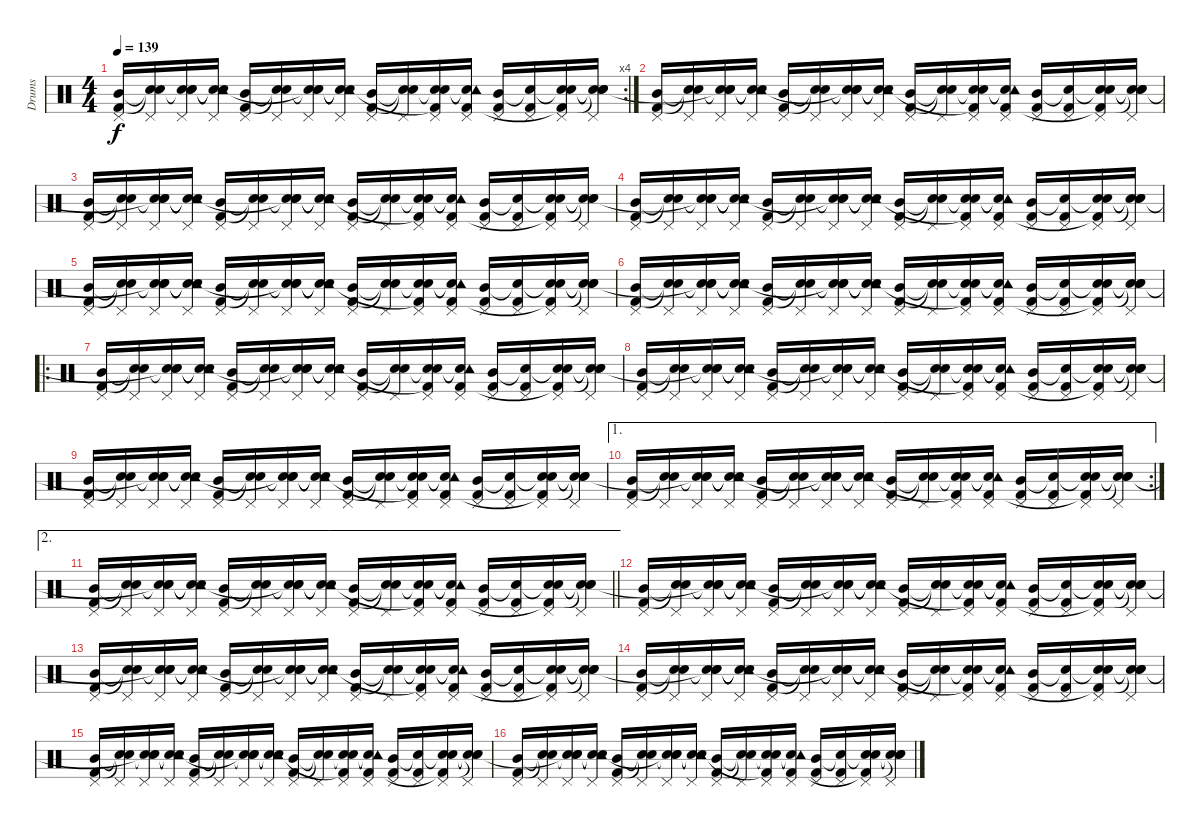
\track ("Drums" "Drums") {instrument percussion}
\staff {score}
\articulation defaults
\rc 4
\ts (4 4)
\tempo 139
\clef neutral
\ks c
("Mid Tom (hit)" "Pedal Hi-Hat (hit)" "Kick (hit) 2").16{dy f} ("Snare (hit)"{t} "Pedal Hi-Hat (hit)" "Snare (hit)"{t}).16 ("Snare (hit)"{t} "Snare (hit) 2" "Pedal Hi-Hat (hit)" "Snare (hit)").16 ("Snare (hit)"{t} "Tambourine (hit)"{t} "Pedal Hi-Hat (hit)" "Snare (hit)"{t}).16 ("Mid Tom (hit)" "Pedal Hi-Hat (hit)" "Kick (hit) 2").16 ("Snare (hit)"{t} "Pedal Hi-Hat (hit)" "Snare (hit)"{t}).16 ("Snare (hit)"{t} "Snare (hit) 2" "Pedal Hi-Hat (hit)" "Snare (hit)"{t}).16 ("Snare (hit)"{t} "Tambourine (hit)"{t} "Pedal Hi-Hat (hit)" "Snare (hit)"{t}).16 ("Mid Tom (hit)" "Pedal Hi-Hat (hit)" "Kick (hit) 2").16 ("Snare (hit)"{t} "Pedal Hi-Hat (hit)" "Snare (hit)"{t}).16 ("Snare (hit)"{t} "Snare (hit) 2" "Pedal Hi-Hat (hit)" "Kick (hit) 2"{t}).16 ("Snare (hit)"{t} "Tambourine (hit)"{t} "Pedal Hi-Hat (hit)" "Kick (hit) 2").16 ("Mid Tom (hit)" "Pedal Hi-Hat (hit)" "Kick (hit) 2").16 ("Snare (hit)"{t} "Pedal Hi-Hat (hit)" "Kick (hit) 2").16 ("Snare (hit)"{t} "Snare (hit) 2" "Pedal Hi-Hat (hit)" "Kick (hit) 2"{t}).16 ("Snare (hit)"{t} "Snare (hit)"{t} "Pedal Hi-Hat (hit)" "Snare (hit)"{t}).16 |
("Mid Tom (hit)" "Pedal Hi-Hat (hit)" "Kick (hit) 2").16 ("Snare (hit)"{t} "Pedal Hi-Hat (hit)" "Snare (hit)"{t}).16 ("Snare (hit)"{t} "Snare (hit) 2" "Pedal Hi-Hat (hit)" "Snare (hit)"{t}).16 ("Snare (hit)"{t} "Tambourine (hit)"{t} "Pedal Hi-Hat (hit)" "Snare (hit)"{t}).16 ("Mid Tom (hit)" "Pedal Hi-Hat (hit)" "Kick (hit) 2").16 ("Snare (hit)"{t} "Pedal Hi-Hat (hit)" "Snare (hit)"{t}).16 ("Snare (hit)"{t} "Snare (hit) 2" "Pedal Hi-Hat (hit)" "Snare (hit)"{t}).16 ("Snare (hit)"{t} "Tambourine (hit)"{t} "Pedal Hi-Hat (hit)" "Snare (hit)"{t}).16 ("Mid Tom (hit)" "Pedal Hi-Hat (hit)" "Kick (hit) 2").16 ("Snare (hit)"{t} "Pedal Hi-Hat (hit)" "Snare (hit)"{t}).16 ("Snare (hit)"{t} "Snare (hit) 2" "Pedal Hi-Hat (hit)" "Kick (hit) 2"{t}).16 ("Snare (hit)"{t} "Tambourine (hit)"{t} "Pedal Hi-Hat (hit)" "Kick (hit) 2").16 ("Mid Tom (hit)" "Pedal Hi-Hat (hit)" "Kick (hit) 2").16 ("Snare (hit)"{t} "Pedal Hi-Hat (hit)" "Kick (hit) 2").16 ("Snare (hit)"{t} "Snare (hit) 2" "Pedal Hi-Hat (hit)" "Kick (hit) 2"{t}).16 ("Snare (hit)"{t} "Snare (hit)"{t} "Pedal Hi-Hat (hit)" "Snare (hit)"{t}).16 |
("Mid Tom (hit)" "Pedal Hi-Hat (hit)" "Kick (hit) 2").16 ("Snare (hit)"{t} "Pedal Hi-Hat (hit)" "Snare (hit)"{t}).16 ("Snare (hit)"{t} "Snare (hit) 2" "Pedal Hi-Hat (hit)" "Snare (hit)"{t}).16 ("Snare (hit)"{t} "Tambourine (hit)"{t} "Pedal Hi-Hat (hit)" "Snare (hit)"{t}).16 ("Mid Tom (hit)" "Pedal Hi-Hat (hit)" "Kick (hit) 2").16 ("Snare (hit)"{t} "Pedal Hi-Hat (hit)" "Snare (hit)"{t}).16 ("Snare (hit)"{t} "Snare (hit) 2" "Pedal Hi-Hat (hit)" "Snare (hit)"{t}).16 ("Snare (hit)"{t} "Tambourine (hit)"{t} "Pedal Hi-Hat (hit)" "Snare (hit)"{t}).16 ("Mid Tom (hit)" "Pedal Hi-Hat (hit)" "Kick (hit) 2").16 ("Snare (hit)"{t} "Pedal Hi-Hat (hit)" "Snare (hit)"{t}).16 ("Snare (hit)"{t} "Snare (hit) 2" "Pedal Hi-Hat (hit)" "Kick (hit) 2"{t}).16 ("Snare (hit)"{t} "Tambourine (hit)"{t} "Pedal Hi-Hat (hit)" "Kick (hit) 2").16 ("Mid Tom (hit)" "Pedal Hi-Hat (hit)" "Kick (hit) 2").16 ("Snare (hit)"{t} "Pedal Hi-Hat (hit)" "Kick (hit) 2").16 ("Snare (hit)"{t} "Snare (hit) 2" "Pedal Hi-Hat (hit)" "Kick (hit) 2"{t}).16 ("Snare (hit)"{t} "Snare (hit)"{t} "Pedal Hi-Hat (hit)" "Snare (hit)"{t}).16 |
("Mid Tom (hit)" "Pedal Hi-Hat (hit)" "Kick (hit) 2").16 ("Snare (hit)"{t} "Pedal Hi-Hat (hit)" "Snare (hit)"{t}).16 ("Snare (hit)"{t} "Snare (hit) 2" "Pedal Hi-Hat (hit)" "Snare (hit)"{t}).16 ("Snare (hit)"{t} "Tambourine (hit)"{t} "Pedal Hi-Hat (hit)" "Snare (hit)"{t}).16 ("Mid Tom (hit)" "Pedal Hi-Hat (hit)" "Kick (hit) 2").16 ("Snare (hit)"{t} "Pedal Hi-Hat (hit)" "Snare (hit)"{t}).16 ("Snare (hit)"{t} "Snare (hit) 2" "Pedal Hi-Hat (hit)" "Snare (hit)"{t}).16 ("Snare (hit)"{t} "Tambourine (hit)"{t} "Pedal Hi-Hat (hit)" "Snare (hit)"{t}).16 ("Mid Tom (hit)" "Pedal Hi-Hat (hit)" "Kick (hit) 2").16 ("Snare (hit)"{t} "Pedal Hi-Hat (hit)" "Snare (hit)"{t}).16 ("Snare (hit)"{t} "Snare (hit) 2" "Pedal Hi-Hat (hit)" "Kick (hit) 2"{t}).16 ("Snare (hit)"{t} "Tambourine (hit)"{t} "Pedal Hi-Hat (hit)" "Kick (hit) 2").16 ("Mid Tom (hit)" "Pedal Hi-Hat (hit)" "Kick (hit) 2").16 ("Snare (hit)"{t} "Pedal Hi-Hat (hit)" "Kick (hit) 2").16 ("Snare (hit)"{t} "Snare (hit) 2" "Pedal Hi-Hat (hit)" "Kick (hit) 2"{t}).16 ("Snare (hit)"{t} "Snare (hit)"{t} "Pedal Hi-Hat (hit)" "Snare (hit)"{t}).16 |
("Mid Tom (hit)" "Pedal Hi-Hat (hit)" "Kick (hit) 2").16 ("Snare (hit)"{t} "Pedal Hi-Hat (hit)" "Snare (hit)"{t}).16 ("Snare (hit)"{t} "Snare (hit) 2" "Pedal Hi-Hat (hit)" "Snare (hit)"{t}).16 ("Snare (hit)"{t} "Tambourine (hit)"{t} "Pedal Hi-Hat (hit)" "Snare (hit)"{t}).16 ("Mid Tom (hit)" "Pedal Hi-Hat (hit)" "Kick (hit) 2").16 ("Snare (hit)"{t} "Pedal Hi-Hat (hit)" "Snare (hit)"{t}).16 ("Snare (hit)"{t} "Snare (hit) 2" "Pedal Hi-Hat (hit)" "Snare (hit)"{t}).16 ("Snare (hit)"{t} "Tambourine (hit)"{t} "Pedal Hi-Hat (hit)" "Snare (hit)"{t}).16 ("Mid Tom (hit)" "Pedal Hi-Hat (hit)" "Kick (hit) 2").16 ("Snare (hit)"{t} "Pedal Hi-Hat (hit)" "Snare (hit)"{t}).16 ("Snare (hit)"{t} "Snare (hit) 2" "Pedal Hi-Hat (hit)" "Kick (hit) 2"{t}).16 ("Snare (hit)"{t} "Tambourine (hit)"{t} "Pedal Hi-Hat (hit)" "Kick (hit) 2").16 ("Mid Tom (hit)" "Pedal Hi-Hat (hit)" "Kick (hit) 2").16 ("Snare (hit)"{t} "Pedal Hi-Hat (hit)" "Kick (hit) 2").16 ("Snare (hit)"{t} "Snare (hit) 2" "Pedal Hi-Hat (hit)" "Kick (hit) 2"{t}).16 ("Snare (hit)"{t} "Snare (hit)"{t} "Pedal Hi-Hat (hit)" "Snare (hit)"{t}).16 |
("Mid Tom (hit)" "Pedal Hi-Hat (hit)" "Kick (hit) 2").16 ("Snare (hit)"{t} "Pedal Hi-Hat (hit)" "Snare (hit)"{t}).16 ("Snare (hit)"{t} "Snare (hit) 2" "Pedal Hi-Hat (hit)" "Snare (hit)"{t}).16 ("Snare (hit)"{t} "Tambourine (hit)"{t} "Pedal Hi-Hat (hit)" "Snare (hit)"{t}).16 ("Mid Tom (hit)" "Pedal Hi-Hat (hit)" "Kick (hit) 2").16 ("Snare (hit)"{t} "Pedal Hi-Hat (hit)" "Snare (hit)"{t}).16 ("Snare (hit)"{t} "Snare (hit) 2" "Pedal Hi-Hat (hit)" "Snare (hit)"{t}).16 ("Snare (hit)"{t} "Tambourine (hit)"{t} "Pedal Hi-Hat (hit)" "Snare (hit)"{t}).16 ("Mid Tom (hit)" "Pedal Hi-Hat (hit)" "Kick (hit) 2").16 ("Snare (hit)"{t} "Pedal Hi-Hat (hit)" "Snare (hit)"{t}).16 ("Snare (hit)"{t} "Snare (hit) 2" "Pedal Hi-Hat (hit)" "Kick (hit) 2"{t}).16 ("Snare (hit)"{t} "Tambourine (hit)"{t} "Pedal Hi-Hat (hit)" "Kick (hit) 2").16 ("Mid Tom (hit)" "Pedal Hi-Hat (hit)" "Kick (hit) 2").16 ("Snare (hit)"{t} "Pedal Hi-Hat (hit)" "Kick (hit) 2").16 ("Snare (hit)"{t} "Snare (hit) 2" "Pedal Hi-Hat (hit)" "Kick (hit) 2"{t}).16 ("Snare (hit)"{t} "Snare (hit)"{t} "Pedal Hi-Hat (hit)" "Snare (hit)"{t}).16 |
\ro
("Mid Tom (hit)" "Pedal Hi-Hat (hit)" "Kick (hit) 2").16 ("Snare (hit)"{t} "Pedal Hi-Hat (hit)" "Snare (hit)"{t}).16 ("Snare (hit)"{t} "Snare (hit) 2" "Pedal Hi-Hat (hit)" "Snare (hit)"{t}).16 ("Snare (hit)"{t} "Tambourine (hit)"{t} "Pedal Hi-Hat (hit)" "Snare (hit)"{t}).16 ("Mid Tom (hit)" "Pedal Hi-Hat (hit)" "Kick (hit) 2").16 ("Snare (hit)"{t} "Pedal Hi-Hat (hit)" "Snare (hit)"{t}).16 ("Snare (hit)"{t} "Snare (hit) 2" "Pedal Hi-Hat (hit)" "Snare (hit)"{t}).16 ("Snare (hit)"{t} "Tambourine (hit)"{t} "Pedal Hi-Hat (hit)" "Snare (hit)"{t}).16 ("Mid Tom (hit)" "Pedal Hi-Hat (hit)" "Kick (hit) 2").16 ("Snare (hit)"{t} "Pedal Hi-Hat (hit)" "Snare (hit)"{t}).16 ("Snare (hit)"{t} "Snare (hit) 2" "Pedal Hi-Hat (hit)" "Kick (hit) 2"{t}).16 ("Snare (hit)"{t} "Tambourine (hit)"{t} "Pedal Hi-Hat (hit)" "Kick (hit) 2").16 ("Mid Tom (hit)" "Pedal Hi-Hat (hit)" "Kick (hit) 2").16 ("Snare (hit)"{t} "Pedal Hi-Hat (hit)" "Kick (hit) 2").16 ("Snare (hit)"{t} "Snare (hit) 2" "Pedal Hi-Hat (hit)" "Kick (hit) 2"{t}).16 ("Snare (hit)"{t} "Snare (hit)"{t} "Pedal Hi-Hat (hit)" "Snare (hit)"{t}).16 |
("Mid Tom (hit)" "Pedal Hi-Hat (hit)" "Kick (hit) 2").16 ("Snare (hit)"{t} "Pedal Hi-Hat (hit)" "Snare (hit)"{t}).16 ("Snare (hit)"{t} "Snare (hit) 2" "Pedal Hi-Hat (hit)" "Snare (hit)"{t}).16 ("Snare (hit)"{t} "Tambourine (hit)"{t} "Pedal Hi-Hat (hit)" "Snare (hit)"{t}).16 ("Mid Tom (hit)" "Pedal Hi-Hat (hit)" "Kick (hit) 2").16 ("Snare (hit)"{t} "Pedal Hi-Hat (hit)" "Snare (hit)"{t}).16 ("Snare (hit)"{t} "Snare (hit) 2" "Pedal Hi-Hat (hit)" "Snare (hit)"{t}).16 ("Snare (hit)"{t} "Tambourine (hit)"{t} "Pedal Hi-Hat (hit)" "Snare (hit)"{t}).16 ("Mid Tom (hit)" "Pedal Hi-Hat (hit)" "Kick (hit) 2").16 ("Snare (hit)"{t} "Pedal Hi-Hat (hit)" "Snare (hit)"{t}).16 ("Snare (hit)"{t} "Snare (hit) 2" "Pedal Hi-Hat (hit)" "Kick (hit) 2"{t}).16 ("Snare (hit)"{t} "Tambourine (hit)"{t} "Pedal Hi-Hat (hit)" "Kick (hit) 2").16 ("Mid Tom (hit)" "Pedal Hi-Hat (hit)" "Kick (hit) 2").16 ("Snare (hit)"{t} "Pedal Hi-Hat (hit)" "Kick (hit) 2").16 ("Snare (hit)"{t} "Snare (hit) 2" "Pedal Hi-Hat (hit)" "Kick (hit) 2"{t}).16 ("Snare (hit)"{t} "Snare (hit)"{t} "Pedal Hi-Hat (hit)" "Snare (hit)"{t}).16 |
("Mid Tom (hit)" "Pedal Hi-Hat (hit)" "Kick (hit) 2").16 ("Snare (hit)"{t} "Pedal Hi-Hat (hit)" "Snare (hit)"{t}).16 ("Snare (hit)"{t} "Snare (hit) 2" "Pedal Hi-Hat (hit)" "Snare (hit)"{t}).16 ("Snare (hit)"{t} "Tambourine (hit)"{t} "Pedal Hi-Hat (hit)" "Snare (hit)"{t}).16 ("Mid Tom (hit)" "Pedal Hi-Hat (hit)" "Kick (hit) 2").16 ("Snare (hit)"{t} "Pedal Hi-Hat (hit)" "Snare (hit)"{t}).16 ("Snare (hit)"{t} "Snare (hit) 2" "Pedal Hi-Hat (hit)" "Snare (hit)"{t}).16 ("Snare (hit)"{t} "Tambourine (hit)"{t} "Pedal Hi-Hat (hit)" "Snare (hit)"{t}).16 ("Mid Tom (hit)" "Pedal Hi-Hat (hit)" "Kick (hit) 2").16 ("Snare (hit)"{t} "Pedal Hi-Hat (hit)" "Snare (hit)"{t}).16 ("Snare (hit)"{t} "Snare (hit) 2" "Pedal Hi-Hat (hit)" "Kick (hit) 2"{t}).16 ("Snare (hit)"{t} "Tambourine (hit)"{t} "Pedal Hi-Hat (hit)" "Kick (hit) 2").16 ("Mid Tom (hit)" "Pedal Hi-Hat (hit)" "Kick (hit) 2").16 ("Snare (hit)"{t} "Pedal Hi-Hat (hit)" "Kick (hit) 2").16 ("Snare (hit)"{t} "Snare (hit) 2" "Pedal Hi-Hat (hit)" "Kick (hit) 2"{t}).16 ("Snare (hit)"{t} "Snare (hit)"{t} "Pedal Hi-Hat (hit)" "Snare (hit)"{t}).16 |
\ae 1
\rc 2
("Mid Tom (hit)" "Pedal Hi-Hat (hit)" "Kick (hit) 2").16 ("Snare (hit)"{t} "Pedal Hi-Hat (hit)" "Snare (hit)"{t}).16 ("Snare (hit)"{t} "Snare (hit) 2" "Pedal Hi-Hat (hit)" "Snare (hit)"{t}).16 ("Snare (hit)"{t} "Tambourine (hit)"{t} "Pedal Hi-Hat (hit)" "Snare (hit)"{t}).16 ("Mid Tom (hit)" "Pedal Hi-Hat (hit)" "Kick (hit) 2").16 ("Snare (hit)"{t} "Pedal Hi-Hat (hit)" "Snare (hit)"{t}).16 ("Snare (hit)"{t} "Snare (hit) 2" "Pedal Hi-Hat (hit)" "Snare (hit)"{t}).16 ("Snare (hit)"{t} "Tambourine (hit)"{t} "Pedal Hi-Hat (hit)" "Snare (hit)"{t}).16 ("Mid Tom (hit)" "Pedal Hi-Hat (hit)" "Kick (hit) 2").16 ("Snare (hit)"{t} "Pedal Hi-Hat (hit)" "Snare (hit)"{t}).16 ("Snare (hit)"{t} "Snare (hit) 2" "Pedal Hi-Hat (hit)" "Kick (hit) 2"{t}).16 ("Snare (hit)"{t} "Tambourine (hit)"{t} "Pedal Hi-Hat (hit)" "Kick (hit) 2").16 ("Mid Tom (hit)" "Pedal Hi-Hat (hit)" "Kick (hit) 2").16 ("Snare (hit)"{t} "Pedal Hi-Hat (hit)" "Kick (hit) 2").16 ("Snare (hit)"{t} "Snare (hit) 2" "Pedal Hi-Hat (hit)" "Kick (hit) 2"{t}).16 ("Snare (hit)"{t} "Snare (hit)"{t} "Pedal Hi-Hat (hit)" "Snare (hit)"{t}).16 |
\ae 2
\barLineRight lightlight
("Mid Tom (hit)" "Pedal Hi-Hat (hit)" "Kick (hit) 2").16 ("Snare (hit)"{t} "Pedal Hi-Hat (hit)" "Snare (hit)"{t}).16 ("Snare (hit)"{t} "Snare (hit) 2" "Pedal Hi-Hat (hit)" "Snare (hit)"{t}).16 ("Snare (hit)"{t} "Tambourine (hit)"{t} "Pedal Hi-Hat (hit)" "Snare (hit)"{t}).16 ("Mid Tom (hit)" "Pedal Hi-Hat (hit)" "Kick (hit) 2").16 ("Snare (hit)"{t} "Pedal Hi-Hat (hit)" "Snare (hit)"{t}).16 ("Snare (hit)"{t} "Snare (hit) 2" "Pedal Hi-Hat (hit)" "Snare (hit)"{t}).16 ("Snare (hit)"{t} "Tambourine (hit)"{t} "Pedal Hi-Hat (hit)" "Snare (hit)"{t}).16 ("Mid Tom (hit)" "Pedal Hi-Hat (hit)" "Kick (hit) 2").16 ("Snare (hit)"{t} "Pedal Hi-Hat (hit)" "Snare (hit)"{t}).16 ("Snare (hit)"{t} "Snare (hit) 2" "Pedal Hi-Hat (hit)" "Kick (hit) 2"{t}).16 ("Snare (hit)"{t} "Tambourine (hit)"{t} "Pedal Hi-Hat (hit)" "Kick (hit) 2").16 ("Mid Tom (hit)" "Pedal Hi-Hat (hit)" "Kick (hit) 2").16 ("Snare (hit)"{t} "Pedal Hi-Hat (hit)" "Kick (hit) 2").16 ("Snare (hit)"{t} "Snare (hit) 2" "Pedal Hi-Hat (hit)" "Kick (hit) 2"{t}).16 ("Snare (hit)"{t} "Snare (hit)"{t} "Pedal Hi-Hat (hit)" "Snare (hit)"{t}).16 |
("Mid Tom (hit)" "Pedal Hi-Hat (hit)" "Kick (hit) 2").16 ("Snare (hit)"{t} "Pedal Hi-Hat (hit)" "Snare (hit)"{t}).16 ("Snare (hit)"{t} "Snare (hit) 2" "Pedal Hi-Hat (hit)" "Snare (hit)"{t}).16 ("Snare (hit)"{t} "Tambourine (hit)"{t} "Pedal Hi-Hat (hit)" "Snare (hit)"{t}).16 ("Mid Tom (hit)" "Pedal Hi-Hat (hit)" "Kick (hit) 2").16 ("Snare (hit)"{t} "Pedal Hi-Hat (hit)" "Snare (hit)"{t}).16 ("Snare (hit)"{t} "Snare (hit) 2" "Pedal Hi-Hat (hit)" "Snare (hit)"{t}).16 ("Snare (hit)"{t} "Tambourine (hit)"{t} "Pedal Hi-Hat (hit)" "Snare (hit)"{t}).16 ("Mid Tom (hit)" "Pedal Hi-Hat (hit)" "Kick (hit) 2").16 ("Snare (hit)"{t} "Pedal Hi-Hat (hit)" "Snare (hit)"{t}).16 ("Snare (hit)"{t} "Snare (hit) 2" "Pedal Hi-Hat (hit)" "Kick (hit) 2"{t}).16 ("Snare (hit)"{t} "Tambourine (hit)"{t} "Pedal Hi-Hat (hit)" "Kick (hit) 2").16 ("Mid Tom (hit)" "Pedal Hi-Hat (hit)" "Kick (hit) 2").16 ("Snare (hit)"{t} "Pedal Hi-Hat (hit)" "Kick (hit) 2").16 ("Snare (hit)"{t} "Snare (hit) 2" "Pedal Hi-Hat (hit)" "Kick (hit) 2"{t}).16 ("Snare (hit)"{t} "Snare (hit)"{t} "Pedal Hi-Hat (hit)" "Snare (hit)"{t}).16 |
("Mid Tom (hit)" "Pedal Hi-Hat (hit)" "Kick (hit) 2").16 ("Snare (hit)"{t} "Pedal Hi-Hat (hit)" "Snare (hit)"{t}).16 ("Snare (hit)"{t} "Snare (hit) 2" "Pedal Hi-Hat (hit)" "Snare (hit)"{t}).16 ("Snare (hit)"{t} "Tambourine (hit)"{t} "Pedal Hi-Hat (hit)" "Snare (hit)"{t}).16 ("Mid Tom (hit)" "Pedal Hi-Hat (hit)" "Kick (hit) 2").16 ("Snare (hit)"{t} "Pedal Hi-Hat (hit)" "Snare (hit)"{t}).16 ("Snare (hit)"{t} "Snare (hit) 2" "Pedal Hi-Hat (hit)" "Snare (hit)"{t}).16 ("Snare (hit)"{t} "Tambourine (hit)"{t} "Pedal Hi-Hat (hit)" "Snare (hit)"{t}).16 ("Mid Tom (hit)" "Pedal Hi-Hat (hit)" "Kick (hit) 2").16 ("Snare (hit)"{t} "Pedal Hi-Hat (hit)" "Snare (hit)"{t}).16 ("Snare (hit)"{t} "Snare (hit) 2" "Pedal Hi-Hat (hit)" "Kick (hit) 2"{t}).16 ("Snare (hit)"{t} "Tambourine (hit)"{t} "Pedal Hi-Hat (hit)" "Kick (hit) 2").16 ("Mid Tom (hit)" "Pedal Hi-Hat (hit)" "Kick (hit) 2").16 ("Snare (hit)"{t} "Pedal Hi-Hat (hit)" "Kick (hit) 2").16 ("Snare (hit)"{t} "Snare (hit) 2" "Pedal Hi-Hat (hit)" "Kick (hit) 2"{t}).16 ("Snare (hit)"{t} "Snare (hit)"{t} "Pedal Hi-Hat (hit)" "Snare (hit)"{t}).16 |
("Mid Tom (hit)" "Pedal Hi-Hat (hit)" "Kick (hit) 2").16 ("Snare (hit)"{t} "Pedal Hi-Hat (hit)" "Snare (hit)"{t}).16 ("Snare (hit)"{t} "Snare (hit) 2" "Pedal Hi-Hat (hit)" "Snare (hit)"{t}).16 ("Snare (hit)"{t} "Tambourine (hit)"{t} "Pedal Hi-Hat (hit)" "Snare (hit)"{t}).16 ("Mid Tom (hit)" "Pedal Hi-Hat (hit)" "Kick (hit) 2").16 ("Snare (hit)"{t} "Pedal Hi-Hat (hit)" "Snare (hit)"{t}).16 ("Snare (hit)"{t} "Snare (hit) 2" "Pedal Hi-Hat (hit)" "Snare (hit)"{t}).16 ("Snare (hit)"{t} "Tambourine (hit)"{t} "Pedal Hi-Hat (hit)" "Snare (hit)"{t}).16 ("Mid Tom (hit)" "Pedal Hi-Hat (hit)" "Kick (hit) 2").16 ("Snare (hit)"{t} "Pedal Hi-Hat (hit)" "Snare (hit)"{t}).16 ("Snare (hit)"{t} "Snare (hit) 2" "Pedal Hi-Hat (hit)" "Kick (hit) 2"{t}).16 ("Snare (hit)"{t} "Tambourine (hit)"{t} "Pedal Hi-Hat (hit)" "Kick (hit) 2").16 ("Mid Tom (hit)" "Pedal Hi-Hat (hit)" "Kick (hit) 2").16 ("Snare (hit)"{t} "Pedal Hi-Hat (hit)" "Kick (hit) 2").16 ("Snare (hit)"{t} "Snare (hit) 2" "Pedal Hi-Hat (hit)" "Kick (hit) 2"{t}).16 ("Snare (hit)"{t} "Snare (hit)"{t} "Pedal Hi-Hat (hit)" "Snare (hit)"{t}).16 |
("Mid Tom (hit)" "Pedal Hi-Hat (hit)" "Kick (hit) 2").16 ("Snare (hit)"{t} "Pedal Hi-Hat (hit)" "Snare (hit)"{t}).16 ("Snare (hit)"{t} "Snare (hit) 2" "Pedal Hi-Hat (hit)" "Snare (hit)"{t}).16 ("Snare (hit)"{t} "Tambourine (hit)"{t} "Pedal Hi-Hat (hit)" "Snare (hit)"{t}).16 ("Mid Tom (hit)" "Pedal Hi-Hat (hit)" "Kick (hit) 2").16 ("Snare (hit)"{t} "Pedal Hi-Hat (hit)" "Snare (hit)"{t}).16 ("Snare (hit)"{t} "Snare (hit) 2" "Pedal Hi-Hat (hit)" "Snare (hit)"{t}).16 ("Snare (hit)"{t} "Tambourine (hit)"{t} "Pedal Hi-Hat (hit)" "Snare (hit)"{t}).16 ("Mid Tom (hit)" "Pedal Hi-Hat (hit)" "Kick (hit) 2").16 ("Snare (hit)"{t} "Pedal Hi-Hat (hit)" "Snare (hit)"{t}).16 ("Snare (hit)"{t} "Snare (hit) 2" "Pedal Hi-Hat (hit)" "Kick (hit) 2"{t}).16 ("Snare (hit)"{t} "Tambourine (hit)"{t} "Pedal Hi-Hat (hit)" "Kick (hit) 2").16 ("Mid Tom (hit)" "Pedal Hi-Hat (hit)" "Kick (hit) 2").16 ("Snare (hit)"{t} "Pedal Hi-Hat (hit)" "Kick (hit) 2").16 ("Snare (hit)"{t} "Snare (hit) 2" "Pedal Hi-Hat (hit)" "Kick (hit) 2"{t}).16 ("Snare (hit)"{t} "Snare (hit)"{t} "Pedal Hi-Hat (hit)" "Snare (hit)"{t}).16 |
("Mid Tom (hit)" "Pedal Hi-Hat (hit)" "Kick (hit) 2").16 ("Snare (hit)"{t} "Pedal Hi-Hat (hit)" "Snare (hit)"{t}).16 ("Snare (hit)"{t} "Snare (hit) 2" "Pedal Hi-Hat (hit)" "Snare (hit)"{t}).16 ("Snare (hit)"{t} "Tambourine (hit)"{t} "Pedal Hi-Hat (hit)" "Snare (hit)"{t}).16 ("Mid Tom (hit)" "Pedal Hi-Hat (hit)" "Kick (hit) 2").16 ("Snare (hit)"{t} "Pedal Hi-Hat (hit)" "Snare (hit)"{t}).16 ("Snare (hit)"{t} "Snare (hit) 2" "Pedal Hi-Hat (hit)" "Snare (hit)"{t}).16 ("Snare (hit)"{t} "Tambourine (hit)"{t} "Pedal Hi-Hat (hit)" "Snare (hit)"{t}).16 ("Mid Tom (hit)" "Pedal Hi-Hat (hit)" "Kick (hit) 2").16 ("Snare (hit)"{t} "Pedal Hi-Hat (hit)" "Snare (hit)"{t}).16 ("Snare (hit)"{t} "Snare (hit) 2" "Pedal Hi-Hat (hit)" "Kick (hit) 2"{t}).16 ("Snare (hit)"{t} "Tambourine (hit)"{t} "Pedal Hi-Hat (hit)" "Kick (hit) 2").16 ("Mid Tom (hit)" "Pedal Hi-Hat (hit)" "Kick (hit) 2").16 ("Snare (hit)"{t} "Pedal Hi-Hat (hit)" "Kick (hit) 2").16 ("Snare (hit)"{t} "Snare (hit) 2" "Pedal Hi-Hat (hit)" "Kick (hit) 2"{t}).16 ("Snare (hit)"{t} "Snare (hit)"{t} "Pedal Hi-Hat (hit)" "Snare (hit)"{t}).16
